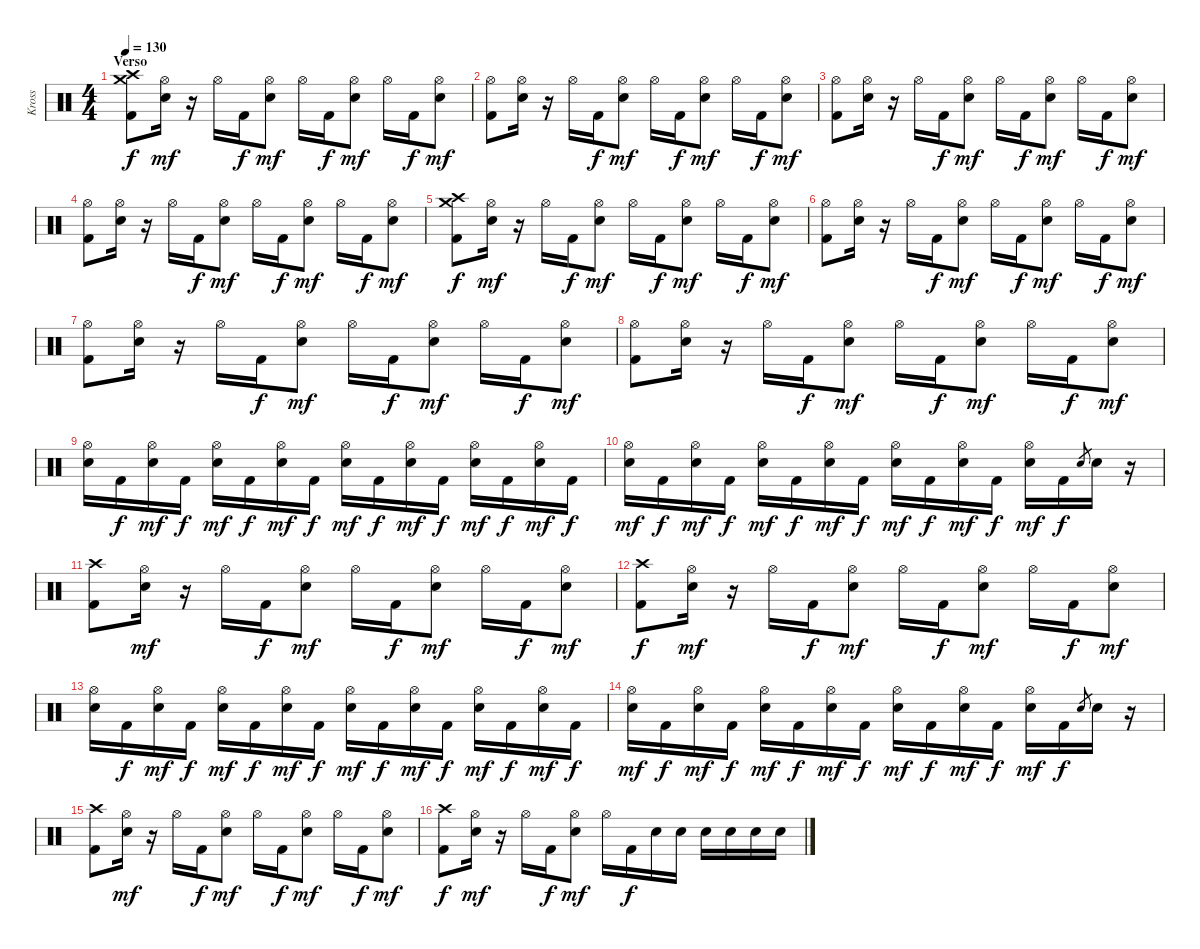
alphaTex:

\track ("Kross" "Kross") {instrument percussion}
\staff {score}
\articulation defaults
\ts (4 4)
\section ("" "Verso")
\tempo 130
\clef neutral
\ks c
("Crash high (hit)" "Crash medium (hit)" "Kick (hit) 2").8{dy f} ("Hi-Hat (open)" "Snare (hit) 2").16{dy mf} r.16 "Hi-Hat (open)".16 "Kick (hit) 2".16{dy f} ("Hi-Hat (open)" "Snare (hit) 2").8{dy mf} "Hi-Hat (open)".16 "Kick (hit) 2".16{dy f} ("Hi-Hat (open)" "Snare (hit) 2").8{dy mf} "Hi-Hat (open)".16 "Kick (hit) 2".16{dy f} ("Hi-Hat (open)" "Snare (hit) 2").8{dy mf} |
("Hi-Hat (open)" "Kick (hit) 2").8 ("Hi-Hat (open)" "Snare (hit) 2").16 r.16 "Hi-Hat (open)".16 "Kick (hit) 2".16{dy f} ("Hi-Hat (open)" "Snare (hit) 2").8{dy mf} "Hi-Hat (open)".16 "Kick (hit) 2".16{dy f} ("Hi-Hat (open)" "Snare (hit) 2").8{dy mf} "Hi-Hat (open)".16 "Kick (hit) 2".16{dy f} ("Hi-Hat (open)" "Snare (hit) 2").8{dy mf} |
("Hi-Hat (open)" "Kick (hit) 2").8 ("Hi-Hat (open)" "Snare (hit) 2").16 r.16 "Hi-Hat (open)".16 "Kick (hit) 2".16{dy f} ("Hi-Hat (open)" "Snare (hit) 2").8{dy mf} "Hi-Hat (open)".16 "Kick (hit) 2".16{dy f} ("Hi-Hat (open)" "Snare (hit) 2").8{dy mf} "Hi-Hat (open)".16 "Kick (hit) 2".16{dy f} ("Hi-Hat (open)" "Snare (hit) 2").8{dy mf} |
("Hi-Hat (open)" "Kick (hit) 2").8 ("Hi-Hat (open)" "Snare (hit) 2").16 r.16 "Hi-Hat (open)".16 "Kick (hit) 2".16{dy f} ("Hi-Hat (open)" "Snare (hit) 2").8{dy mf} "Hi-Hat (open)".16 "Kick (hit) 2".16{dy f} ("Hi-Hat (open)" "Snare (hit) 2").8{dy mf} "Hi-Hat (open)".16 "Kick (hit) 2".16{dy f} ("Hi-Hat (open)" "Snare (hit) 2").8{dy mf} |
("Crash high (hit)" "Crash medium (hit)" "Kick (hit) 2").8{dy f} ("Hi-Hat (open)" "Snare (hit) 2").16{dy mf} r.16 "Hi-Hat (open)".16 "Kick (hit) 2".16{dy f} ("Hi-Hat (open)" "Snare (hit) 2").8{dy mf} "Hi-Hat (open)".16 "Kick (hit) 2".16{dy f} ("Hi-Hat (open)" "Snare (hit) 2").8{dy mf} "Hi-Hat (open)".16 "Kick (hit) 2".16{dy f} ("Hi-Hat (open)" "Snare (hit) 2").8{dy mf} |
("Hi-Hat (open)" "Kick (hit) 2").8 ("Hi-Hat (open)" "Snare (hit) 2").16 r.16 "Hi-Hat (open)".16 "Kick (hit) 2".16{dy f} ("Hi-Hat (open)" "Snare (hit) 2").8{dy mf} "Hi-Hat (open)".16 "Kick (hit) 2".16{dy f} ("Hi-Hat (open)" "Snare (hit) 2").8{dy mf} "Hi-Hat (open)".16 "Kick (hit) 2".16{dy f} ("Hi-Hat (open)" "Snare (hit) 2").8{dy mf} |
("Hi-Hat (open)" "Kick (hit) 2").8 ("Hi-Hat (open)" "Snare (hit) 2").16 r.16 "Hi-Hat (open)".16 "Kick (hit) 2".16{dy f} ("Hi-Hat (open)" "Snare (hit) 2").8{dy mf} "Hi-Hat (open)".16 "Kick (hit) 2".16{dy f} ("Hi-Hat (open)" "Snare (hit) 2").8{dy mf} "Hi-Hat (open)".16 "Kick (hit) 2".16{dy f} ("Hi-Hat (open)" "Snare (hit) 2").8{dy mf} |
("Hi-Hat (open)" "Kick (hit) 2").8 ("Hi-Hat (open)" "Snare (hit) 2").16 r.16 "Hi-Hat (open)".16 "Kick (hit) 2".16{dy f} ("Hi-Hat (open)" "Snare (hit) 2").8{dy mf} "Hi-Hat (open)".16 "Kick (hit) 2".16{dy f} ("Hi-Hat (open)" "Snare (hit) 2").8{dy mf} "Hi-Hat (open)".16 "Kick (hit) 2".16{dy f} ("Hi-Hat (open)" "Snare (hit) 2").8{dy mf} |
("Hi-Hat (open)" "Snare (hit) 2").16 "Kick (hit) 2".16{dy f} ("Hi-Hat (open)" "Snare (hit) 2").16{dy mf} "Kick (hit) 2".16{dy f} ("Hi-Hat (open)" "Snare (hit) 2").16{dy mf} "Kick (hit) 2".16{dy f} ("Hi-Hat (open)" "Snare (hit) 2").16{dy mf} "Kick (hit) 2".16{dy f} ("Hi-Hat (open)" "Snare (hit) 2").16{dy mf} "Kick (hit) 2".16{dy f} ("Hi-Hat (open)" "Snare (hit) 2").16{dy mf} "Kick (hit) 2".16{dy f} ("Hi-Hat (open)" "Snare (hit) 2").16{dy mf} "Kick (hit) 2".16{dy f} ("Hi-Hat (open)" "Snare (hit) 2").16{dy mf} "Kick (hit) 2".16{dy f} |
("Hi-Hat (open)" "Snare (hit) 2").16{dy mf} "Kick (hit) 2".16{dy f} ("Hi-Hat (open)" "Snare (hit) 2").16{dy mf} "Kick (hit) 2".16{dy f} ("Hi-Hat (open)" "Snare (hit) 2").16{dy mf} "Kick (hit) 2".16{dy f} ("Hi-Hat (open)" "Snare (hit) 2").16{dy mf} "Kick (hit) 2".16{dy f} ("Hi-Hat (open)" "Snare (hit) 2").16{dy mf} "Kick (hit) 2".16{dy f} ("Hi-Hat (open)" "Snare (hit) 2").16{dy mf} "Kick (hit) 2".16{dy f} ("Hi-Hat (open)" "Snare (hit) 2").16{dy mf} "Kick (hit) 2".16{dy f} "Snare (hit) 2".8{gr} "Snare (hit) 2".16 r.16 |
("Crash high (hit)" "Kick (hit) 2").8 ("Hi-Hat (open)" "Snare (hit) 2").16{dy mf} r.16 "Hi-Hat (open)".16 "Kick (hit) 2".16{dy f} ("Hi-Hat (open)" "Snare (hit) 2").8{dy mf} "Hi-Hat (open)".16 "Kick (hit) 2".16{dy f} ("Hi-Hat (open)" "Snare (hit) 2").8{dy mf} "Hi-Hat (open)".16 "Kick (hit) 2".16{dy f} ("Hi-Hat (open)" "Snare (hit) 2").8{dy mf} |
("Crash high (hit)" "Kick (hit) 2").8{dy f} ("Hi-Hat (open)" "Snare (hit) 2").16{dy mf} r.16 "Hi-Hat (open)".16 "Kick (hit) 2".16{dy f} ("Hi-Hat (open)" "Snare (hit) 2").8{dy mf} "Hi-Hat (open)".16 "Kick (hit) 2".16{dy f} ("Hi-Hat (open)" "Snare (hit) 2").8{dy mf} "Hi-Hat (open)".16 "Kick (hit) 2".16{dy f} ("Hi-Hat (open)" "Snare (hit) 2").8{dy mf} |
("Hi-Hat (open)" "Snare (hit) 2").16 "Kick (hit) 2".16{dy f} ("Hi-Hat (open)" "Snare (hit) 2").16{dy mf} "Kick (hit) 2".16{dy f} ("Hi-Hat (open)" "Snare (hit) 2").16{dy mf} "Kick (hit) 2".16{dy f} ("Hi-Hat (open)" "Snare (hit) 2").16{dy mf} "Kick (hit) 2".16{dy f} ("Hi-Hat (open)" "Snare (hit) 2").16{dy mf} "Kick (hit) 2".16{dy f} ("Hi-Hat (open)" "Snare (hit) 2").16{dy mf} "Kick (hit) 2".16{dy f} ("Hi-Hat (open)" "Snare (hit) 2").16{dy mf} "Kick (hit) 2".16{dy f} ("Hi-Hat (open)" "Snare (hit) 2").16{dy mf} "Kick (hit) 2".16{dy f} |
("Hi-Hat (open)" "Snare (hit) 2").16{dy mf} "Kick (hit) 2".16{dy f} ("Hi-Hat (open)" "Snare (hit) 2").16{dy mf} "Kick (hit) 2".16{dy f} ("Hi-Hat (open)" "Snare (hit) 2").16{dy mf} "Kick (hit) 2".16{dy f} ("Hi-Hat (open)" "Snare (hit) 2").16{dy mf} "Kick (hit) 2".16{dy f} ("Hi-Hat (open)" "Snare (hit) 2").16{dy mf} "Kick (hit) 2".16{dy f} ("Hi-Hat (open)" "Snare (hit) 2").16{dy mf} "Kick (hit) 2".16{dy f} ("Hi-Hat (open)" "Snare (hit) 2").16{dy mf} "Kick (hit) 2".16{dy f} "Snare (hit) 2".8{gr} "Snare (hit) 2".16 r.16 |
("Crash high (hit)" "Kick (hit) 2").8 ("Hi-Hat (open)" "Snare (hit) 2").16{dy mf} r.16 "Hi-Hat (open)".16 "Kick (hit) 2".16{dy f} ("Hi-Hat (open)" "Snare (hit) 2").8{dy mf} "Hi-Hat (open)".16 "Kick (hit) 2".16{dy f} ("Hi-Hat (open)" "Snare (hit) 2").8{dy mf} "Hi-Hat (open)".16 "Kick (hit) 2".16{dy f} ("Hi-Hat (open)" "Snare (hit) 2").8{dy mf} |
("Crash high (hit)" "Kick (hit) 2").8{dy f} ("Hi-Hat (open)" "Snare (hit) 2").16{dy mf} r.16 "Hi-Hat (open)".16 "Kick (hit) 2".16{dy f} ("Hi-Hat (open)" "Snare (hit) 2").8{dy mf} "Hi-Hat (open)".16 "Kick (hit) 2".16{dy f} "Snare (hit) 2".16 "Snare (hit) 2".16 "Snare (hit) 2".16 "Snare (hit) 2".16 "Snare (hit) 2".16 "Snare (hit) 2".16
